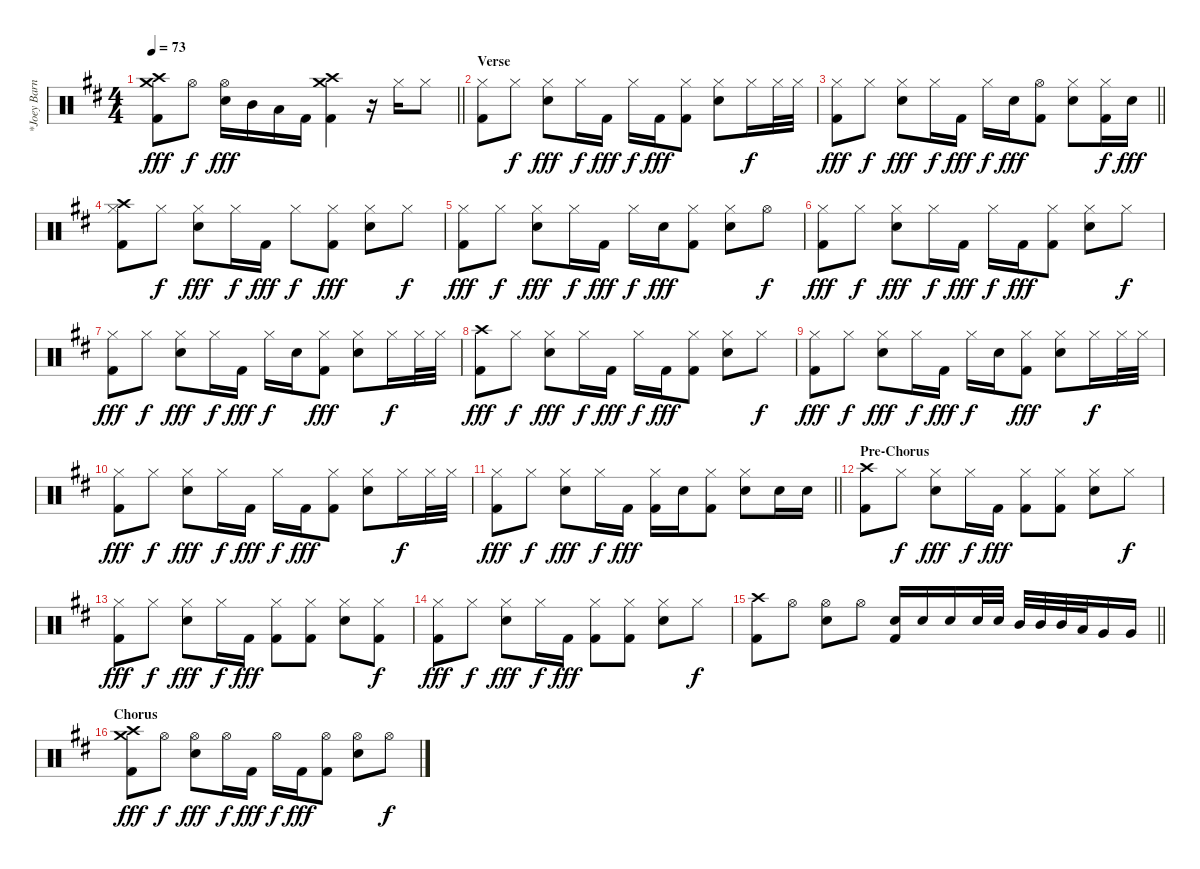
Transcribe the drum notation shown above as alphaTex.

\track ("*Joey Barnes (Drums)" "*Joey Barn") {instrument percussion}
\staff {score}
\articulation defaults
\ts (4 4)
\tempo 73
\clef neutral
\barLineRight lightlight
\ks d
("Crash high (hit)" "Crash medium (hit)" "Kick (hit) 2").8{dy fff} "Hi-Hat (open)".8{dy f} ("Hi-Hat (open)" "Snare (hit) 2").16{dy fff} "Mid Tom (hit)".16 "Low Tom (hit)".16 "Kick (hit) 2".16 ("Crash high (hit)" "Crash medium (hit)" "Kick (hit) 2").4 r.16 "Hi-Hat (closed)".16 "Hi-Hat (closed)".8 |
\section ("" "Verse")
("Hi-Hat (closed)" "Kick (hit) 2").8 "Hi-Hat (closed)".8{dy f} ("Hi-Hat (closed)" "Snare (hit) 2").8{dy fff} "Hi-Hat (closed)".16{dy f} "Kick (hit) 2".16{dy fff} "Hi-Hat (closed)".16{dy f} "Kick (hit) 2".16{dy fff} ("Hi-Hat (closed)" "Kick (hit) 2").8 ("Hi-Hat (closed)" "Snare (hit) 2").8 "Hi-Hat (closed)".16{dy f} "Hi-Hat (closed)".32 "Hi-Hat (closed)".32 |
\barLineRight lightlight
("Hi-Hat (closed)" "Kick (hit) 2").8{dy fff} "Hi-Hat (closed)".8{dy f} ("Hi-Hat (closed)" "Snare (hit) 2").8{dy fff} "Hi-Hat (closed)".16{dy f} "Kick (hit) 2".16{dy fff} "Hi-Hat (closed)".16{dy f} "Snare (hit) 2".16{dy fff} ("Hi-Hat (open)" "Kick (hit) 2").8 ("Hi-Hat (closed)" "Snare (hit) 2").8 ("Hi-Hat (closed)" "Kick (hit) 2").16{dy f} "Snare (hit) 2".16{dy fff} |
("Crash high (hit)" "Hi-Hat (closed)" "Kick (hit) 2").8 "Hi-Hat (closed)".8{dy f} ("Hi-Hat (closed)" "Snare (hit) 2").8{dy fff} "Hi-Hat (closed)".16{dy f} "Kick (hit) 2".16{dy fff} "Hi-Hat (closed)".8{dy f} ("Hi-Hat (closed)" "Kick (hit) 2").8{dy fff} ("Hi-Hat (closed)" "Snare (hit) 2").8 "Hi-Hat (closed)".8{dy f} |
("Hi-Hat (closed)" "Kick (hit) 2").8{dy fff} "Hi-Hat (closed)".8{dy f} ("Hi-Hat (closed)" "Snare (hit) 2").8{dy fff} "Hi-Hat (closed)".16{dy f} "Kick (hit) 2".16{dy fff} "Hi-Hat (closed)".16{dy f} "Snare (hit) 2".16{dy fff} ("Hi-Hat (closed)" "Kick (hit) 2").8 ("Hi-Hat (closed)" "Snare (hit) 2").8 "Hi-Hat (open)".8{dy f} |
("Hi-Hat (closed)" "Kick (hit) 2").8{dy fff} "Hi-Hat (closed)".8{dy f} ("Hi-Hat (closed)" "Snare (hit) 2").8{dy fff} "Hi-Hat (closed)".16{dy f} "Kick (hit) 2".16{dy fff} "Hi-Hat (closed)".16{dy f} "Kick (hit) 2".16{dy fff} ("Hi-Hat (closed)" "Kick (hit) 2").8 ("Hi-Hat (closed)" "Snare (hit) 2").8 "Hi-Hat (closed)".8{dy f} |
("Hi-Hat (closed)" "Kick (hit) 2").8{dy fff} "Hi-Hat (closed)".8{dy f} ("Hi-Hat (closed)" "Snare (hit) 2").8{dy fff} "Hi-Hat (closed)".16{dy f} "Kick (hit) 2".16{dy fff} "Hi-Hat (closed)".16{dy f} "Snare (hit) 2".16 ("Hi-Hat (closed)" "Kick (hit) 2").8{dy fff} ("Hi-Hat (closed)" "Snare (hit) 2").8 "Hi-Hat (closed)".16{dy f} "Hi-Hat (closed)".32 "Hi-Hat (closed)".32 |
("Crash high (hit)" "Kick (hit) 2").8{dy fff} "Hi-Hat (closed)".8{dy f} ("Hi-Hat (closed)" "Snare (hit) 2").8{dy fff} "Hi-Hat (closed)".16{dy f} "Kick (hit) 2".16{dy fff} "Hi-Hat (closed)".16{dy f} "Kick (hit) 2".16{dy fff} ("Hi-Hat (closed)" "Kick (hit) 2").8 ("Hi-Hat (closed)" "Snare (hit) 2").8 "Hi-Hat (closed)".8{dy f} |
("Hi-Hat (closed)" "Kick (hit) 2").8{dy fff} "Hi-Hat (closed)".8{dy f} ("Hi-Hat (closed)" "Snare (hit) 2").8{dy fff} "Hi-Hat (closed)".16{dy f} "Kick (hit) 2".16{dy fff} "Hi-Hat (closed)".16{dy f} "Snare (hit) 2".16 ("Hi-Hat (closed)" "Kick (hit) 2").8{dy fff} ("Hi-Hat (closed)" "Snare (hit) 2").8 "Hi-Hat (closed)".16{dy f} "Hi-Hat (closed)".32 "Hi-Hat (closed)".32 |
("Hi-Hat (closed)" "Kick (hit) 2").8{dy fff} "Hi-Hat (closed)".8{dy f} ("Hi-Hat (closed)" "Snare (hit) 2").8{dy fff} "Hi-Hat (closed)".16{dy f} "Kick (hit) 2".16{dy fff} "Hi-Hat (closed)".16{dy f} "Kick (hit) 2".16{dy fff} ("Hi-Hat (closed)" "Kick (hit) 2").8 ("Hi-Hat (closed)" "Snare (hit) 2").8 "Hi-Hat (closed)".16{dy f} "Hi-Hat (closed)".32 "Hi-Hat (closed)".32 |
\barLineRight lightlight
("Hi-Hat (closed)" "Kick (hit) 2").8{dy fff} "Hi-Hat (closed)".8{dy f} ("Hi-Hat (closed)" "Snare (hit) 2").8{dy fff} "Hi-Hat (closed)".16{dy f} "Kick (hit) 2".16{dy fff} ("Hi-Hat (closed)" "Kick (hit) 2").16 "Snare (hit) 2".16 ("Hi-Hat (closed)" "Kick (hit) 2").8 ("Hi-Hat (closed)" "Snare (hit) 2").8 "Snare (hit) 2".16 "Snare (hit) 2".16 |
\section ("" "Pre-Chorus")
("Crash high (hit)" "Kick (hit) 2").8 "Hi-Hat (closed)".8{dy f} ("Hi-Hat (closed)" "Snare (hit) 2").8{dy fff} "Hi-Hat (closed)".16{dy f} "Kick (hit) 2".16{dy fff} ("Hi-Hat (closed)" "Kick (hit) 2").8 ("Hi-Hat (closed)" "Kick (hit) 2").8 ("Hi-Hat (closed)" "Snare (hit) 2").8 "Hi-Hat (closed)".8{dy f} |
("Hi-Hat (closed)" "Kick (hit) 2").8{dy fff} "Hi-Hat (closed)".8{dy f} ("Hi-Hat (closed)" "Snare (hit) 2").8{dy fff} "Hi-Hat (closed)".16{dy f} "Kick (hit) 2".16{dy fff} ("Hi-Hat (closed)" "Kick (hit) 2").8 ("Hi-Hat (closed)" "Kick (hit) 2").8 ("Hi-Hat (closed)" "Snare (hit) 2").8 ("Hi-Hat (closed)" "Kick (hit) 2").8{dy f} |
("Hi-Hat (closed)" "Kick (hit) 2").8{dy fff} "Hi-Hat (closed)".8{dy f} ("Hi-Hat (closed)" "Snare (hit) 2").8{dy fff} "Hi-Hat (closed)".16{dy f} "Kick (hit) 2".16{dy fff} ("Hi-Hat (closed)" "Kick (hit) 2").8 ("Hi-Hat (closed)" "Kick (hit) 2").8 ("Hi-Hat (closed)" "Snare (hit) 2").8 "Hi-Hat (closed)".8{dy f} |
\barLineRight lightlight
("Crash high (hit)" "Kick (hit) 2").8 "Hi-Hat (open)".8 ("Hi-Hat (open)" "Snare (hit) 2").8 "Hi-Hat (open)".8 ("Snare (hit) 2" "Kick (hit) 2").16 "Snare (hit) 2".16 "Snare (hit) 2".16 "Snare (hit) 2".32 "Snare (hit) 2".32 "Mid Tom (hit)".32 "Mid Tom (hit)".32 "Mid Tom (hit)".32 "Low Tom (hit)".32 "Very Low Tom (hit)".16 "Very Low Tom (hit)".16 |
\section ("" "Chorus")
("Crash high (hit)" "Crash medium (hit)" "Kick (hit) 2").8{dy fff} "Hi-Hat (open)".8{dy f} ("Hi-Hat (open)" "Snare (hit) 2").8{dy fff} "Hi-Hat (open)".16{dy f} "Kick (hit) 2".16{dy fff} "Hi-Hat (open)".16{dy f} "Kick (hit) 2".16{dy fff} ("Hi-Hat (open)" "Kick (hit) 2").8 ("Hi-Hat (open)" "Snare (hit) 2").8 "Hi-Hat (open)".8{dy f}
